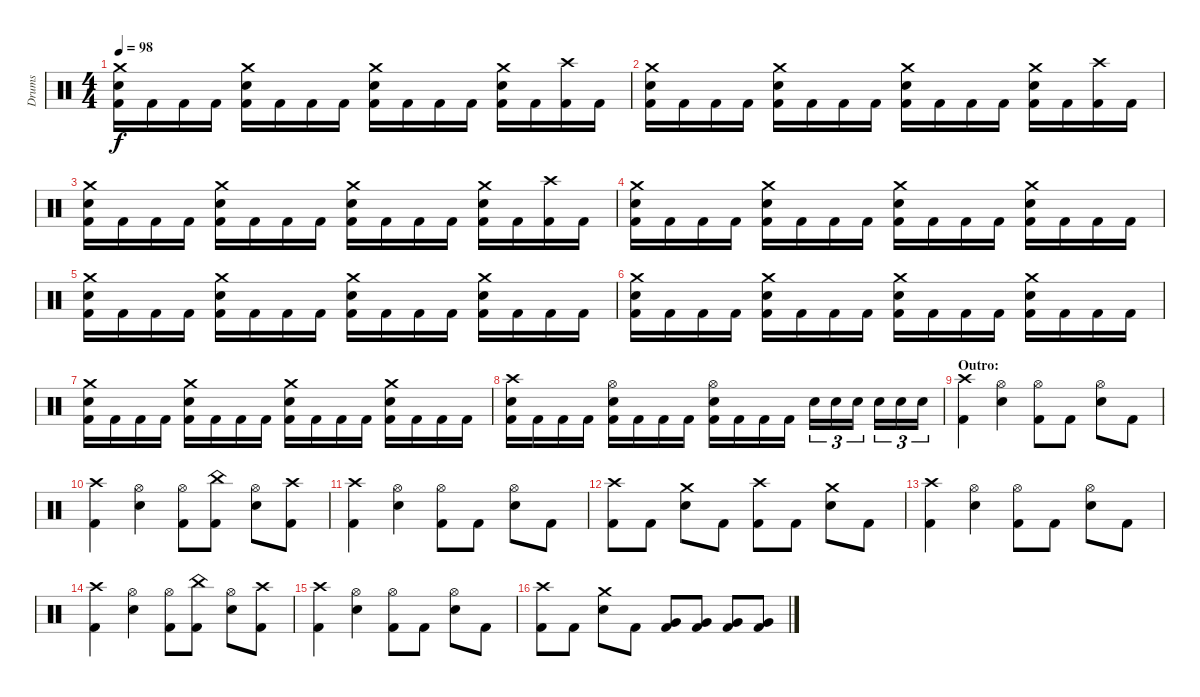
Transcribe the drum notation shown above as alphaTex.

\track ("Drums" "Drums") {instrument percussion}
\staff {score}
\articulation defaults
\ts (4 4)
\tempo 98
\clef neutral
\ks c
("Crash medium (hit)" "Electric Snare (hit)" "Kick (hit) 2").16{dy f} "Kick (hit) 2".16 "Kick (hit) 2".16 "Kick (hit) 2".16 ("Crash medium (hit)" "Electric Snare (hit)" "Kick (hit) 2").16 "Kick (hit) 2".16 "Kick (hit) 2".16 "Kick (hit) 2".16 ("Crash medium (hit)" "Electric Snare (hit)" "Kick (hit) 2").16 "Kick (hit) 2".16 "Kick (hit) 2".16 "Kick (hit) 2".16 ("Crash medium (hit)" "Electric Snare (hit)" "Kick (hit) 2").16 "Kick (hit) 2".16 ("Crash high (hit)" "Kick (hit) 2").16 "Kick (hit) 2".16 |
("Crash medium (hit)" "Electric Snare (hit)" "Kick (hit) 2").16 "Kick (hit) 2".16 "Kick (hit) 2".16 "Kick (hit) 2".16 ("Crash medium (hit)" "Electric Snare (hit)" "Kick (hit) 2").16 "Kick (hit) 2".16 "Kick (hit) 2".16 "Kick (hit) 2".16 ("Crash medium (hit)" "Electric Snare (hit)" "Kick (hit) 2").16 "Kick (hit) 2".16 "Kick (hit) 2".16 "Kick (hit) 2".16 ("Crash medium (hit)" "Electric Snare (hit)" "Kick (hit) 2").16 "Kick (hit) 2".16 ("Crash high (hit)" "Kick (hit) 2").16 "Kick (hit) 2".16 |
("Crash medium (hit)" "Electric Snare (hit)" "Kick (hit) 2").16 "Kick (hit) 2".16 "Kick (hit) 2".16 "Kick (hit) 2".16 ("Crash medium (hit)" "Electric Snare (hit)" "Kick (hit) 2").16 "Kick (hit) 2".16 "Kick (hit) 2".16 "Kick (hit) 2".16 ("Crash medium (hit)" "Electric Snare (hit)" "Kick (hit) 2").16 "Kick (hit) 2".16 "Kick (hit) 2".16 "Kick (hit) 2".16 ("Crash medium (hit)" "Electric Snare (hit)" "Kick (hit) 2").16 "Kick (hit) 2".16 ("Crash high (hit)" "Kick (hit) 2").16 "Kick (hit) 2".16 |
("Crash medium (hit)" "Electric Snare (hit)" "Kick (hit) 2").16 "Kick (hit) 2".16 "Kick (hit) 2".16 "Kick (hit) 2".16 ("Crash medium (hit)" "Electric Snare (hit)" "Kick (hit) 2").16 "Kick (hit) 2".16 "Kick (hit) 2".16 "Kick (hit) 2".16 ("Crash medium (hit)" "Electric Snare (hit)" "Kick (hit) 2").16 "Kick (hit) 2".16 "Kick (hit) 2".16 "Kick (hit) 2".16 ("Crash medium (hit)" "Electric Snare (hit)" "Kick (hit) 2").16 "Kick (hit) 2".16 "Kick (hit) 2".16 "Kick (hit) 2".16 |
("Crash medium (hit)" "Electric Snare (hit)" "Kick (hit) 2").16 "Kick (hit) 2".16 "Kick (hit) 2".16 "Kick (hit) 2".16 ("Crash medium (hit)" "Electric Snare (hit)" "Kick (hit) 2").16 "Kick (hit) 2".16 "Kick (hit) 2".16 "Kick (hit) 2".16 ("Crash medium (hit)" "Electric Snare (hit)" "Kick (hit) 2").16 "Kick (hit) 2".16 "Kick (hit) 2".16 "Kick (hit) 2".16 ("Crash medium (hit)" "Electric Snare (hit)" "Kick (hit) 2").16 "Kick (hit) 2".16 "Kick (hit) 2".16 "Kick (hit) 2".16 |
("Crash medium (hit)" "Electric Snare (hit)" "Kick (hit) 2").16 "Kick (hit) 2".16 "Kick (hit) 2".16 "Kick (hit) 2".16 ("Crash medium (hit)" "Electric Snare (hit)" "Kick (hit) 2").16 "Kick (hit) 2".16 "Kick (hit) 2".16 "Kick (hit) 2".16 ("Crash medium (hit)" "Electric Snare (hit)" "Kick (hit) 2").16 "Kick (hit) 2".16 "Kick (hit) 2".16 "Kick (hit) 2".16 ("Crash medium (hit)" "Electric Snare (hit)" "Kick (hit) 2").16 "Kick (hit) 2".16 "Kick (hit) 2".16 "Kick (hit) 2".16 |
("Crash medium (hit)" "Electric Snare (hit)" "Kick (hit) 2").16 "Kick (hit) 2".16 "Kick (hit) 2".16 "Kick (hit) 2".16 ("Crash medium (hit)" "Electric Snare (hit)" "Kick (hit) 2").16 "Kick (hit) 2".16 "Kick (hit) 2".16 "Kick (hit) 2".16 ("Crash medium (hit)" "Electric Snare (hit)" "Kick (hit) 2").16 "Kick (hit) 2".16 "Kick (hit) 2".16 "Kick (hit) 2".16 ("Crash medium (hit)" "Electric Snare (hit)" "Kick (hit) 2").16 "Kick (hit) 2".16 "Kick (hit) 2".16 "Kick (hit) 2".16 |
("Crash high (hit)" "Electric Snare (hit)" "Kick (hit) 2").16 "Kick (hit) 2".16 "Kick (hit) 2".16 "Kick (hit) 2".16 ("Hi-Hat (open)" "Electric Snare (hit)" "Kick (hit) 2").16 "Kick (hit) 2".16 "Kick (hit) 2".16 "Kick (hit) 2".16 ("Hi-Hat (open)" "Electric Snare (hit)" "Kick (hit) 2").16 "Kick (hit) 2".16 "Kick (hit) 2".16 "Kick (hit) 2".16 "Electric Snare (hit)".16{tu (3 2)} "Electric Snare (hit)".16{tu (3 2)} "Electric Snare (hit)".16{tu (3 2)} "Electric Snare (hit)".16{tu (3 2)} "Electric Snare (hit)".16{tu (3 2)} "Electric Snare (hit)".16{tu (3 2)} |
\section ("" "Outro:")
("Crash high (hit)" "Kick (hit) 2").4 ("Hi-Hat (open)" "Electric Snare (hit)").4 ("Hi-Hat (open)" "Kick (hit) 2").8 "Kick (hit) 2".8 ("Hi-Hat (open)" "Electric Snare (hit)").8 "Kick (hit) 2".8 |
("Crash high (hit)" "Kick (hit) 2").4 ("Hi-Hat (open)" "Electric Snare (hit)").4 ("Hi-Hat (open)" "Kick (hit) 2").8 ("China (hit)" "Kick (hit) 2").8 ("Hi-Hat (open)" "Electric Snare (hit)").8 ("Crash high (hit)" "Kick (hit) 2").8 |
("Crash high (hit)" "Kick (hit) 2").4 ("Hi-Hat (open)" "Electric Snare (hit)").4 ("Hi-Hat (open)" "Kick (hit) 2").8 "Kick (hit) 2".8 ("Hi-Hat (open)" "Electric Snare (hit)").8 "Kick (hit) 2".8 |
("Crash high (hit)" "Kick (hit) 2").8 "Kick (hit) 2".8 ("Crash medium (hit)" "Electric Snare (hit)").8 "Kick (hit) 2".8 ("Crash high (hit)" "Kick (hit) 2").8 "Kick (hit) 2".8 ("Crash medium (hit)" "Electric Snare (hit)").8 "Kick (hit) 2".8 |
("Crash high (hit)" "Kick (hit) 2").4 ("Hi-Hat (open)" "Electric Snare (hit)").4 ("Hi-Hat (open)" "Kick (hit) 2").8 "Kick (hit) 2".8 ("Hi-Hat (open)" "Electric Snare (hit)").8 "Kick (hit) 2".8 |
("Crash high (hit)" "Kick (hit) 2").4 ("Hi-Hat (open)" "Electric Snare (hit)").4 ("Hi-Hat (open)" "Kick (hit) 2").8 ("China (hit)" "Kick (hit) 2").8 ("Hi-Hat (open)" "Electric Snare (hit)").8 ("Crash high (hit)" "Kick (hit) 2").8 |
("Crash high (hit)" "Kick (hit) 2").4 ("Hi-Hat (open)" "Electric Snare (hit)").4 ("Hi-Hat (open)" "Kick (hit) 2").8 "Kick (hit) 2".8 ("Hi-Hat (open)" "Electric Snare (hit)").8 "Kick (hit) 2".8 |
("Crash high (hit)" "Kick (hit) 2").8 "Kick (hit) 2".8 ("Crash medium (hit)" "Electric Snare (hit)").8 "Kick (hit) 2".8 ("Very Low Tom (hit)" "Kick (hit) 2").8 ("Very Low Tom (hit)" "Kick (hit) 2").8 ("Very Low Tom (hit)" "Kick (hit) 2").8 ("Very Low Tom (hit)" "Kick (hit) 2").8
